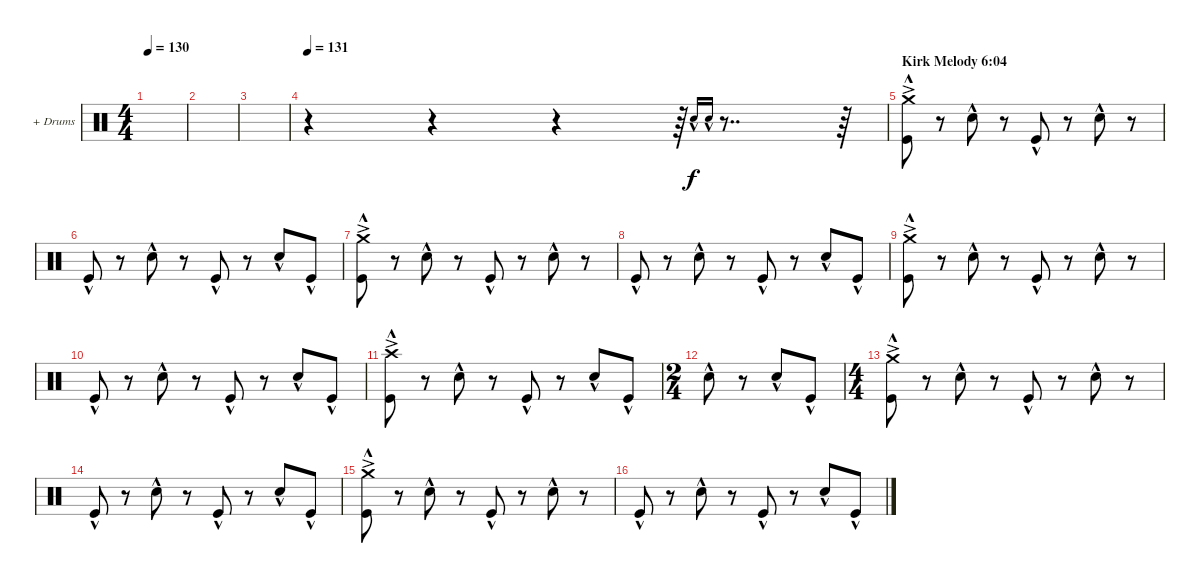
\defaultSystemsLayout 4
\bracketExtendMode groupsimilarinstruments
\firstSystemTrackNameOrientation horizontal
\otherSystemsTrackNameOrientation horizontal
\track ("+ Drums" "+ Drums") {instrument percussion}
\staff {score}
\articulation defaults
\ts (4 4)
\tempo 130
\clef neutral
\ks c
|
|
|
\tempo 131
r.4 r.4 r.4 r.64 "Snare (hit) 2"{hac}.16{gr onbeat} "Snare (hit) 2"{hac}.16{gr onbeat} r.8{dd} r.64 |
\section ("" "Kirk Melody 6:04")
("Crash medium (hit)"{ac} "Kick (hit)"{hac}).8 r.8 "Snare (hit) 2"{hac}.8 r.8 "Kick (hit)"{hac}.8 r.8 "Snare (hit) 2"{hac}.8 r.8 |
"Kick (hit)"{hac}.8 r.8 "Snare (hit) 2"{hac}.8 r.8 "Kick (hit)"{hac}.8 r.8 "Snare (hit) 2"{hac}.8 "Kick (hit)"{hac}.8 |
("Crash medium (hit)"{ac} "Kick (hit)"{hac}).8 r.8 "Snare (hit) 2"{hac}.8 r.8 "Kick (hit)"{hac}.8 r.8 "Snare (hit) 2"{hac}.8 r.8 |
"Kick (hit)"{hac}.8 r.8 "Snare (hit) 2"{hac}.8 r.8 "Kick (hit)"{hac}.8 r.8 "Snare (hit) 2"{hac}.8 "Kick (hit)"{hac}.8 |
("Crash medium (hit)"{ac} "Kick (hit)"{hac}).8 r.8 "Snare (hit) 2"{hac}.8 r.8 "Kick (hit)"{hac}.8 r.8 "Snare (hit) 2"{hac}.8 r.8 |
"Kick (hit)"{hac}.8 r.8 "Snare (hit) 2"{hac}.8 r.8 "Kick (hit)"{hac}.8 r.8 "Snare (hit) 2"{hac}.8 "Kick (hit)"{hac}.8 |
("Crash high (hit)"{ac} "Kick (hit)"{hac}).8 r.8 "Snare (hit) 2"{hac}.8 r.8 "Kick (hit)"{hac}.8 r.8 "Snare (hit) 2"{hac}.8 "Kick (hit)"{hac}.8 |
\ts (2 4)
"Snare (hit) 2"{hac}.8 r.8 "Snare (hit) 2"{hac}.8 "Kick (hit)"{hac}.8 |
\ts (4 4)
("Crash medium (hit)"{ac} "Kick (hit)"{hac}).8 r.8 "Snare (hit) 2"{hac}.8 r.8 "Kick (hit)"{hac}.8 r.8 "Snare (hit) 2"{hac}.8 r.8 |
"Kick (hit)"{hac}.8 r.8 "Snare (hit) 2"{hac}.8 r.8 "Kick (hit)"{hac}.8 r.8 "Snare (hit) 2"{hac}.8 "Kick (hit)"{hac}.8 |
("Crash medium (hit)"{ac} "Kick (hit)"{hac}).8 r.8 "Snare (hit) 2"{hac}.8 r.8 "Kick (hit)"{hac}.8 r.8 "Snare (hit) 2"{hac}.8 r.8 |
"Kick (hit)"{hac}.8 r.8 "Snare (hit) 2"{hac}.8 r.8 "Kick (hit)"{hac}.8 r.8 "Snare (hit) 2"{hac}.8 "Kick (hit)"{hac}.8
